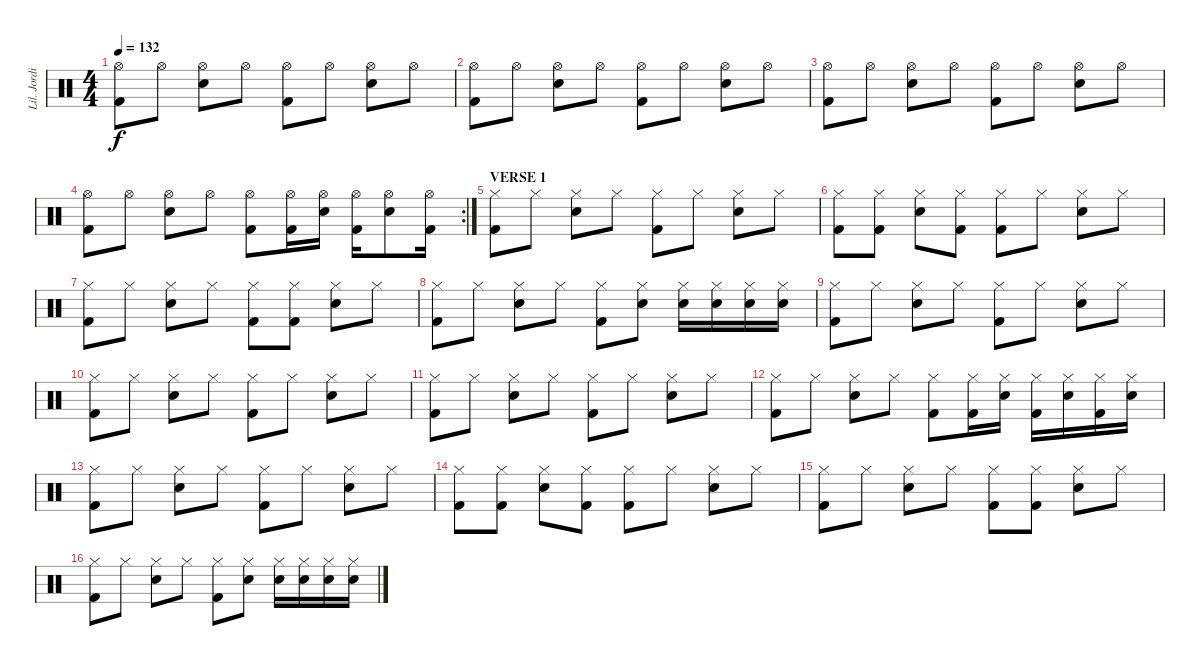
\track ("Lil. Jordison" "Lil. Jordi") {instrument percussion}
\staff {score}
\articulation defaults
\ts (4 4)
\tempo 132
\clef neutral
\ks c
("Hi-Hat (open)" "Kick (hit) 2").8{dy f} "Hi-Hat (open)".8 ("Hi-Hat (open)" "Electric Snare (hit)").8 "Hi-Hat (open)".8 ("Hi-Hat (open)" "Kick (hit) 2").8 "Hi-Hat (open)".8 ("Hi-Hat (open)" "Electric Snare (hit)").8 "Hi-Hat (open)".8 |
("Hi-Hat (open)" "Kick (hit) 2").8 "Hi-Hat (open)".8 ("Hi-Hat (open)" "Electric Snare (hit)").8 "Hi-Hat (open)".8 ("Hi-Hat (open)" "Kick (hit) 2").8 "Hi-Hat (open)".8 ("Hi-Hat (open)" "Electric Snare (hit)").8 "Hi-Hat (open)".8 |
("Hi-Hat (open)" "Kick (hit) 2").8 "Hi-Hat (open)".8 ("Hi-Hat (open)" "Electric Snare (hit)").8 "Hi-Hat (open)".8 ("Hi-Hat (open)" "Kick (hit) 2").8 "Hi-Hat (open)".8 ("Hi-Hat (open)" "Electric Snare (hit)").8 "Hi-Hat (open)".8 |
\rc 2
("Hi-Hat (open)" "Kick (hit) 2").8 "Hi-Hat (open)".8 ("Hi-Hat (open)" "Electric Snare (hit)").8 "Hi-Hat (open)".8 ("Hi-Hat (open)" "Kick (hit) 2").8 ("Hi-Hat (open)" "Kick (hit) 2").16 ("Hi-Hat (open)" "Electric Snare (hit)").16 ("Hi-Hat (open)" "Kick (hit) 2").16 ("Hi-Hat (open)" "Electric Snare (hit)").8 ("Hi-Hat (open)" "Kick (hit) 2").16 |
\section ("" "VERSE 1")
("Hi-Hat (closed)" "Kick (hit) 2").8 "Hi-Hat (closed)".8 ("Hi-Hat (closed)" "Electric Snare (hit)").8 "Hi-Hat (closed)".8 ("Hi-Hat (closed)" "Kick (hit) 2").8 "Hi-Hat (closed)".8 ("Hi-Hat (closed)" "Electric Snare (hit)").8 "Hi-Hat (closed)".8 |
("Hi-Hat (closed)" "Kick (hit) 2").8 ("Hi-Hat (closed)" "Kick (hit) 2").8 ("Hi-Hat (closed)" "Electric Snare (hit)").8 ("Hi-Hat (closed)" "Kick (hit) 2").8 ("Hi-Hat (closed)" "Kick (hit) 2").8 "Hi-Hat (closed)".8 ("Hi-Hat (closed)" "Electric Snare (hit)").8 "Hi-Hat (closed)".8 |
("Hi-Hat (closed)" "Kick (hit) 2").8 "Hi-Hat (closed)".8 ("Hi-Hat (closed)" "Electric Snare (hit)").8 "Hi-Hat (closed)".8 ("Hi-Hat (closed)" "Kick (hit) 2").8 ("Hi-Hat (closed)" "Kick (hit) 2").8 ("Hi-Hat (closed)" "Electric Snare (hit)").8 "Hi-Hat (closed)".8 |
("Hi-Hat (closed)" "Kick (hit) 2").8 "Hi-Hat (closed)".8 ("Hi-Hat (closed)" "Electric Snare (hit)").8 "Hi-Hat (closed)".8 ("Hi-Hat (closed)" "Kick (hit) 2").8 ("Hi-Hat (closed)" "Electric Snare (hit)").8 ("Hi-Hat (closed)" "Electric Snare (hit)").16 ("Hi-Hat (closed)" "Electric Snare (hit)").16 ("Hi-Hat (closed)" "Electric Snare (hit)").16 ("Hi-Hat (closed)" "Electric Snare (hit)").16 |
("Hi-Hat (closed)" "Kick (hit) 2").8 "Hi-Hat (closed)".8 ("Hi-Hat (closed)" "Electric Snare (hit)").8 "Hi-Hat (closed)".8 ("Hi-Hat (closed)" "Kick (hit) 2").8 "Hi-Hat (closed)".8 ("Hi-Hat (closed)" "Electric Snare (hit)").8 "Hi-Hat (closed)".8 |
("Hi-Hat (closed)" "Kick (hit) 2").8 "Hi-Hat (closed)".8 ("Hi-Hat (closed)" "Electric Snare (hit)").8 "Hi-Hat (closed)".8 ("Hi-Hat (closed)" "Kick (hit) 2").8 "Hi-Hat (closed)".8 ("Hi-Hat (closed)" "Electric Snare (hit)").8 "Hi-Hat (closed)".8 |
("Hi-Hat (closed)" "Kick (hit) 2").8 "Hi-Hat (closed)".8 ("Hi-Hat (closed)" "Electric Snare (hit)").8 "Hi-Hat (closed)".8 ("Hi-Hat (closed)" "Kick (hit) 2").8 "Hi-Hat (closed)".8 ("Hi-Hat (closed)" "Electric Snare (hit)").8 "Hi-Hat (closed)".8 |
("Hi-Hat (closed)" "Kick (hit) 2").8 "Hi-Hat (closed)".8 ("Hi-Hat (closed)" "Electric Snare (hit)").8 "Hi-Hat (closed)".8 ("Hi-Hat (closed)" "Kick (hit) 2").8 ("Hi-Hat (closed)" "Kick (hit) 2").16 ("Hi-Hat (closed)" "Electric Snare (hit)").16 ("Hi-Hat (closed)" "Kick (hit) 2").16 ("Hi-Hat (closed)" "Electric Snare (hit)").16 ("Hi-Hat (closed)" "Kick (hit) 2").16 ("Hi-Hat (closed)" "Electric Snare (hit)").16 |
("Hi-Hat (closed)" "Kick (hit) 2").8 "Hi-Hat (closed)".8 ("Hi-Hat (closed)" "Electric Snare (hit)").8 "Hi-Hat (closed)".8 ("Hi-Hat (closed)" "Kick (hit) 2").8 "Hi-Hat (closed)".8 ("Hi-Hat (closed)" "Electric Snare (hit)").8 "Hi-Hat (closed)".8 |
("Hi-Hat (closed)" "Kick (hit) 2").8 ("Hi-Hat (closed)" "Kick (hit) 2").8 ("Hi-Hat (closed)" "Electric Snare (hit)").8 ("Hi-Hat (closed)" "Kick (hit) 2").8 ("Hi-Hat (closed)" "Kick (hit) 2").8 "Hi-Hat (closed)".8 ("Hi-Hat (closed)" "Electric Snare (hit)").8 "Hi-Hat (closed)".8 |
("Hi-Hat (closed)" "Kick (hit) 2").8 "Hi-Hat (closed)".8 ("Hi-Hat (closed)" "Electric Snare (hit)").8 "Hi-Hat (closed)".8 ("Hi-Hat (closed)" "Kick (hit) 2").8 ("Hi-Hat (closed)" "Kick (hit) 2").8 ("Hi-Hat (closed)" "Electric Snare (hit)").8 "Hi-Hat (closed)".8 |
("Hi-Hat (closed)" "Kick (hit) 2").8 "Hi-Hat (closed)".8 ("Hi-Hat (closed)" "Electric Snare (hit)").8 "Hi-Hat (closed)".8 ("Hi-Hat (closed)" "Kick (hit) 2").8 ("Hi-Hat (closed)" "Electric Snare (hit)").8 ("Hi-Hat (closed)" "Electric Snare (hit)").16 ("Hi-Hat (closed)" "Electric Snare (hit)").16 ("Hi-Hat (closed)" "Electric Snare (hit)").16 ("Hi-Hat (closed)" "Electric Snare (hit)").16
